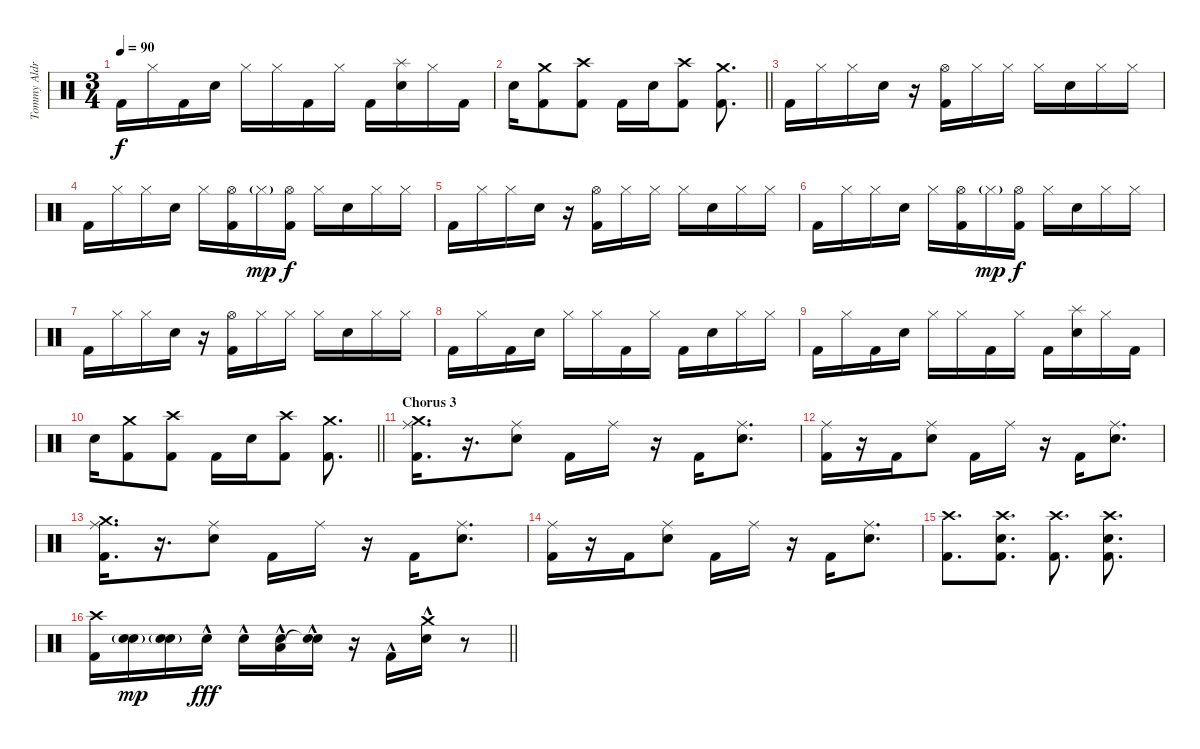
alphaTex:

\track ("Tommy Aldridge" "Tommy Aldr") {instrument percussion}
\staff {score}
\articulation defaults
\ts (3 4)
\tempo 90
\clef neutral
\ks c "Kick (hit) 2".16{dy f} "Hi-Hat (closed)".16 "Kick (hit) 2".16 "Snare (hit) 2".16 "Hi-Hat (closed)".16 "Hi-Hat (closed)".16 "Kick (hit) 2".16 "Hi-Hat (closed)".16 "Kick (hit) 2".16
("Splash (hit)" "Snare (hit) 2").16 "Hi-Hat (closed)".16 "Kick (hit) 2".16 |
\barLineRight lightlight "Snare (hit) 2".16
("Crash medium (hit)" "Kick (hit) 2").8 ("Crash high (hit)" "Kick (hit) 2").8 "Kick (hit) 2".16 "Snare (hit) 2".16 ("Crash high (hit)" "Kick (hit) 2").8 ("Crash medium (hit)" "Kick (hit) 2").8{d} |
"Kick (hit) 2".16 "Hi-Hat (closed)".16 "Hi-Hat (closed)".16 "Snare (hit) 2".16 r.16 ("Hi-Hat (open)" "Kick (hit) 2").16 "Hi-Hat (closed)".16 "Hi-Hat (closed)".16 "Hi-Hat (closed)".16 "Snare (hit) 2".16 "Hi-Hat (closed)".16 "Hi-Hat (closed)".16 |
"Kick (hit) 2".16 "Hi-Hat (closed)".16 "Hi-Hat (closed)".16 "Snare (hit) 2".16 "Hi-Hat (closed)".16 ("Hi-Hat (open)" "Kick (hit) 2").16 "Hi-Hat (closed)"{g}.16{dy mp} ("Hi-Hat (open)" "Kick (hit) 2").16{dy f} "Hi-Hat (closed)".16 "Snare (hit) 2".16 "Hi-Hat (closed)".16 "Hi-Hat (closed)".16 |
"Kick (hit) 2".16 "Hi-Hat (closed)".16 "Hi-Hat (closed)".16 "Snare (hit) 2".16 r.16 ("Hi-Hat (open)" "Kick (hit) 2").16 "Hi-Hat (closed)".16 "Hi-Hat (closed)".16 "Hi-Hat (closed)".16 "Snare (hit) 2".16 "Hi-Hat (closed)".16 "Hi-Hat (closed)".16 |
"Kick (hit) 2".16 "Hi-Hat (closed)".16 "Hi-Hat (closed)".16 "Snare (hit) 2".16 "Hi-Hat (closed)".16 ("Hi-Hat (open)" "Kick (hit) 2").16 "Hi-Hat (closed)"{g}.16{dy mp} ("Hi-Hat (open)" "Kick (hit) 2").16{dy f} "Hi-Hat (closed)".16 "Snare (hit) 2".16 "Hi-Hat (closed)".16 "Hi-Hat (closed)".16 |
"Kick (hit) 2".16 "Hi-Hat (closed)".16 "Hi-Hat (closed)".16 "Snare (hit) 2".16 r.16 ("Hi-Hat (open)" "Kick (hit) 2").16 "Hi-Hat (closed)".16 "Hi-Hat (closed)".16 "Hi-Hat (closed)".16 "Snare (hit) 2".16 "Hi-Hat (closed)".16 "Hi-Hat (closed)".16 |
"Kick (hit) 2".16 "Hi-Hat (closed)".16 "Kick (hit) 2".16 "Snare (hit) 2".16 "Hi-Hat (closed)".16 "Hi-Hat (closed)".16 "Kick (hit) 2".16 "Hi-Hat (closed)".16 "Kick (hit) 2".16 "Snare (hit) 2".16 "Hi-Hat (closed)".16 "Hi-Hat (closed)".16 |
"Kick (hit) 2".16 "Hi-Hat (closed)".16 "Kick (hit) 2".16 "Snare (hit) 2".16 "Hi-Hat (closed)".16 "Hi-Hat (closed)".16 "Kick (hit) 2".16 "Hi-Hat (closed)".16 "Kick (hit) 2".16 ("Splash (hit)" "Snare (hit) 2").16 "Hi-Hat (closed)".16 "Kick (hit) 2".16 |
\barLineRight lightlight "Snare (hit) 2".16
("Crash medium (hit)" "Kick (hit) 2").8 ("Crash high (hit)" "Kick (hit) 2").8 "Kick (hit) 2".16 "Snare (hit) 2".16 ("Crash high (hit)" "Kick (hit) 2").8 ("Crash medium (hit)" "Kick (hit) 2").8{d} |
\section ("" "Chorus 3")
("Crash medium (hit)" "Ride (middle)" "Kick (hit) 2").16{d} r.16{d} ("Ride (middle)" "Snare (hit) 2").8 "Kick (hit) 2".16 "Ride (middle)".16 r.16 "Kick (hit) 2".16 ("Ride (middle)" "Snare (hit) 2").8{d} |
("Ride (middle)" "Kick (hit) 2").16 r.16 "Kick (hit) 2".16 ("Ride (middle)" "Snare (hit) 2").8 "Kick (hit) 2".16 "Ride (middle)".16 r.16 "Kick (hit) 2".16 ("Ride (middle)" "Snare (hit) 2").8{d} |
("Crash medium (hit)" "Ride (middle)" "Kick (hit) 2").16{d} r.16{d} ("Ride (middle)" "Snare (hit) 2").8 "Kick (hit) 2".16 "Ride (middle)".16 r.16 "Kick (hit) 2".16 ("Ride (middle)" "Snare (hit) 2").8{d} |
("Ride (middle)" "Kick (hit) 2").16 r.16 "Kick (hit) 2".16 ("Ride (middle)" "Snare (hit) 2").8 "Kick (hit) 2".16 "Ride (middle)".16 r.16 "Kick (hit) 2".16 ("Ride (middle)" "Snare (hit) 2").8{d} |
("Crash high (hit)" "Kick (hit) 2").8{d} ("Kick (hit) 2" "Crash high (hit)" "Snare (hit) 2").8{d} ("Crash high (hit)" "Kick (hit) 2").8{d} ("Kick (hit) 2" "Crash high (hit)" "Snare (hit) 2").8{d} |
\barLineRight lightlight
("Crash high (hit)" "Kick (hit) 2").16 ("Snare (hit) 2"{g} "Electric Snare (hit)").16{dy mp} ("Snare (hit) 2"{g} "Electric Snare (hit)").16 "Electric Snare (hit)"{hac}.16{dy fff} "Electric Snare (hit)"{hac}.16 ("Low Tom (hit)"{hac} "Electric Snare (hit)"{hac}).16 ("Snare (hit)"{t} "Electric Snare (hit)"{hac}).16 r.16 "Kick (hit) 2"{hac}.16 ("Crash medium (hit)"{hac} "Snare (hit) 2"{hac}).16 r.8
